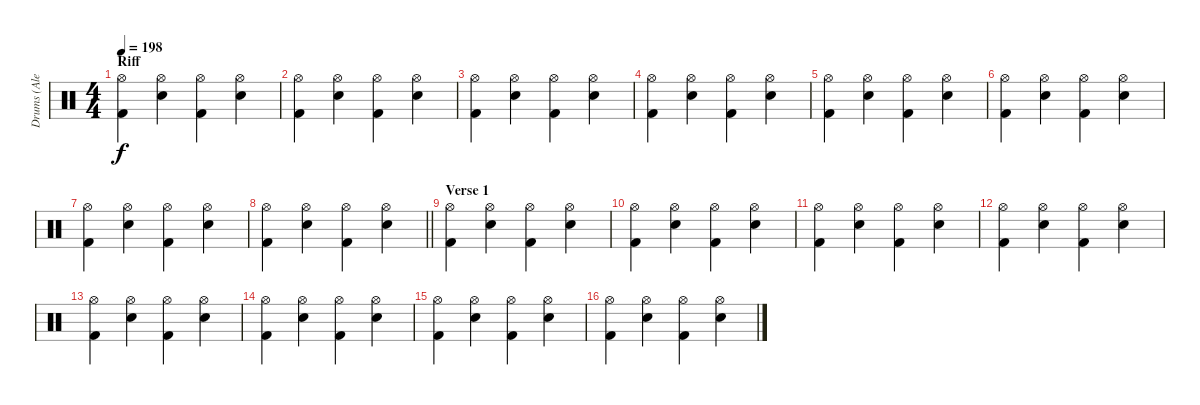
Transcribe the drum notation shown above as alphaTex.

\track ("Drums (Alex Van Halen)" "Drums (Ale") {instrument percussion}
\staff {score}
\articulation defaults
\ts (4 4)
\section ("" "Riff")
\tempo 198
\clef neutral
\ks c
("Kick (hit) 2" "Hi-Hat (open)").4{dy f} ("Snare (hit) 2" "Hi-Hat (open)").4 ("Kick (hit) 2" "Hi-Hat (open)").4 ("Snare (hit) 2" "Hi-Hat (open)").4 |
("Kick (hit) 2" "Hi-Hat (open)").4 ("Snare (hit) 2" "Hi-Hat (open)").4 ("Kick (hit) 2" "Hi-Hat (open)").4 ("Snare (hit) 2" "Hi-Hat (open)").4 |
("Kick (hit) 2" "Hi-Hat (open)").4 ("Snare (hit) 2" "Hi-Hat (open)").4 ("Kick (hit) 2" "Hi-Hat (open)").4 ("Snare (hit) 2" "Hi-Hat (open)").4 |
("Kick (hit) 2" "Hi-Hat (open)").4 ("Snare (hit) 2" "Hi-Hat (open)").4 ("Kick (hit) 2" "Hi-Hat (open)").4 ("Snare (hit) 2" "Hi-Hat (open)").4 |
("Kick (hit) 2" "Hi-Hat (open)").4 ("Snare (hit) 2" "Hi-Hat (open)").4 ("Kick (hit) 2" "Hi-Hat (open)").4 ("Snare (hit) 2" "Hi-Hat (open)").4 |
("Kick (hit) 2" "Hi-Hat (open)").4 ("Snare (hit) 2" "Hi-Hat (open)").4 ("Kick (hit) 2" "Hi-Hat (open)").4 ("Snare (hit) 2" "Hi-Hat (open)").4 |
("Kick (hit) 2" "Hi-Hat (open)").4 ("Snare (hit) 2" "Hi-Hat (open)").4 ("Kick (hit) 2" "Hi-Hat (open)").4 ("Snare (hit) 2" "Hi-Hat (open)").4 |
\barLineRight lightlight
("Kick (hit) 2" "Hi-Hat (open)").4 ("Snare (hit) 2" "Hi-Hat (open)").4 ("Kick (hit) 2" "Hi-Hat (open)").4 ("Snare (hit) 2" "Hi-Hat (open)").4 |
\section ("" "Verse 1")
("Kick (hit) 2" "Hi-Hat (open)").4 ("Snare (hit) 2" "Hi-Hat (open)").4 ("Kick (hit) 2" "Hi-Hat (open)").4 ("Snare (hit) 2" "Hi-Hat (open)").4 |
("Kick (hit) 2" "Hi-Hat (open)").4 ("Snare (hit) 2" "Hi-Hat (open)").4 ("Kick (hit) 2" "Hi-Hat (open)").4 ("Snare (hit) 2" "Hi-Hat (open)").4 |
("Kick (hit) 2" "Hi-Hat (open)").4 ("Snare (hit) 2" "Hi-Hat (open)").4 ("Kick (hit) 2" "Hi-Hat (open)").4 ("Snare (hit) 2" "Hi-Hat (open)").4 |
("Kick (hit) 2" "Hi-Hat (open)").4 ("Snare (hit) 2" "Hi-Hat (open)").4 ("Kick (hit) 2" "Hi-Hat (open)").4 ("Snare (hit) 2" "Hi-Hat (open)").4 |
("Kick (hit) 2" "Hi-Hat (open)").4 ("Snare (hit) 2" "Hi-Hat (open)").4 ("Kick (hit) 2" "Hi-Hat (open)").4 ("Snare (hit) 2" "Hi-Hat (open)").4 |
("Kick (hit) 2" "Hi-Hat (open)").4 ("Snare (hit) 2" "Hi-Hat (open)").4 ("Kick (hit) 2" "Hi-Hat (open)").4 ("Snare (hit) 2" "Hi-Hat (open)").4 |
("Kick (hit) 2" "Hi-Hat (open)").4 ("Snare (hit) 2" "Hi-Hat (open)").4 ("Kick (hit) 2" "Hi-Hat (open)").4 ("Snare (hit) 2" "Hi-Hat (open)").4 |
("Kick (hit) 2" "Hi-Hat (open)").4 ("Snare (hit) 2" "Hi-Hat (open)").4 ("Kick (hit) 2" "Hi-Hat (open)").4 ("Snare (hit) 2" "Hi-Hat (open)").4
